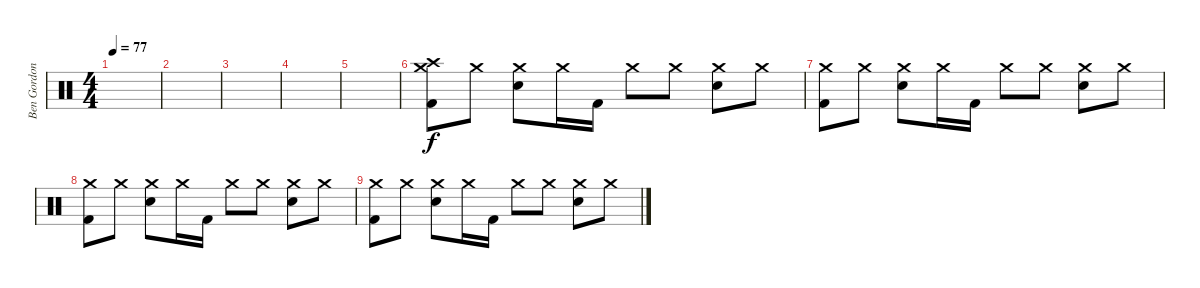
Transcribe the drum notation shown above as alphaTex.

\track ("Ben Gordon" "Ben Gordon") {instrument percussion}
\staff {score}
\articulation defaults
\ts (4 4)
\tempo 77
\clef neutral
\ks c
|
|
|
|
|
("Crash high (hit)" "Crash medium (hit)" "Kick (hit) 2").8 "Crash medium (hit)".8 ("Crash medium (hit)" "Electric Snare (hit)").8 "Crash medium (hit)".16 "Kick (hit) 2".16 "Crash medium (hit)".8 "Crash medium (hit)".8 ("Crash medium (hit)" "Electric Snare (hit)").8 "Crash medium (hit)".8 |
("Crash medium (hit)" "Kick (hit) 2").8 "Crash medium (hit)".8 ("Crash medium (hit)" "Electric Snare (hit)").8 "Crash medium (hit)".16 "Kick (hit) 2".16 "Crash medium (hit)".8 "Crash medium (hit)".8 ("Crash medium (hit)" "Electric Snare (hit)").8 "Crash medium (hit)".8 |
("Crash medium (hit)" "Kick (hit) 2").8 "Crash medium (hit)".8 ("Crash medium (hit)" "Electric Snare (hit)").8 "Crash medium (hit)".16 "Kick (hit) 2".16 "Crash medium (hit)".8 "Crash medium (hit)".8 ("Crash medium (hit)" "Electric Snare (hit)").8 "Crash medium (hit)".8 |
("Crash medium (hit)" "Kick (hit) 2").8 "Crash medium (hit)".8 ("Crash medium (hit)" "Electric Snare (hit)").8 "Crash medium (hit)".16 "Kick (hit) 2".16 "Crash medium (hit)".8 "Crash medium (hit)".8 ("Crash medium (hit)" "Electric Snare (hit)").8 "Crash medium (hit)".8
